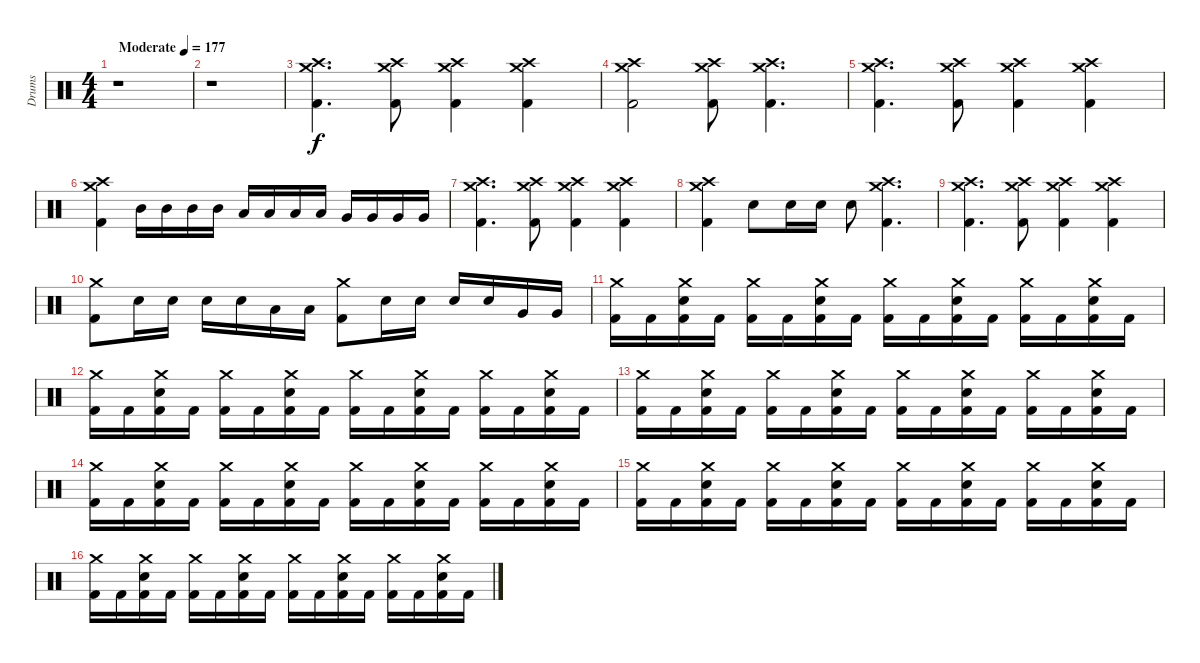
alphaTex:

\track ("Drums" "Drums") {instrument percussion}
\staff {score}
\articulation defaults
\ts (4 4)
\tempo (177 "Moderate")
\clef neutral
\ks c
r.1{dy f} |
r.1 |
("Crash medium (hit)" "Crash high (hit)" "Kick (hit) 2").4{d} ("Crash medium (hit)" "Crash high (hit)" "Kick (hit) 2").8 ("Crash medium (hit)" "Crash high (hit)" "Kick (hit) 2").4 ("Crash medium (hit)" "Crash high (hit)" "Kick (hit) 2").4 |
("Crash medium (hit)" "Crash high (hit)" "Kick (hit) 2").2 ("Crash medium (hit)" "Crash high (hit)" "Kick (hit) 2").8 ("Crash medium (hit)" "Crash high (hit)" "Kick (hit) 2").4{d} |
("Crash medium (hit)" "Crash high (hit)" "Kick (hit) 2").4{d} ("Crash medium (hit)" "Crash high (hit)" "Kick (hit) 2").8 ("Crash medium (hit)" "Crash high (hit)" "Kick (hit) 2").4 ("Crash medium (hit)" "Crash high (hit)" "Kick (hit) 2").4 |
("Crash medium (hit)" "Crash high (hit)" "Kick (hit) 2").4 "Mid Tom (hit)".16 "Mid Tom (hit)".16 "Mid Tom (hit)".16 "Mid Tom (hit)".16 "Low Tom (hit)".16 "Low Tom (hit)".16 "Low Tom (hit)".16 "Low Tom (hit)".16 "Very Low Tom (hit)".16 "Very Low Tom (hit)".16 "Very Low Tom (hit)".16 "Very Low Tom (hit)".16 |
("Crash medium (hit)" "Crash high (hit)" "Kick (hit) 2").4{d} ("Crash medium (hit)" "Crash high (hit)" "Kick (hit) 2").8 ("Crash medium (hit)" "Crash high (hit)" "Kick (hit) 2").4 ("Crash medium (hit)" "Crash high (hit)" "Kick (hit) 2").4 |
("Crash medium (hit)" "Crash high (hit)" "Kick (hit) 2").4 "Snare (hit) 2".8 "Snare (hit) 2".16 "Snare (hit) 2".16 "Snare (hit) 2".8 ("Crash medium (hit)" "Crash high (hit)" "Kick (hit) 2").4{d} |
("Crash medium (hit)" "Crash high (hit)" "Kick (hit) 2").4{d} ("Crash medium (hit)" "Crash high (hit)" "Kick (hit) 2").8 ("Crash medium (hit)" "Crash high (hit)" "Kick (hit) 2").4 ("Crash medium (hit)" "Crash high (hit)" "Kick (hit) 2").4 |
("Crash medium (hit)" "Kick (hit) 2").8 "Snare (hit) 2".16 "Snare (hit) 2".16 "Snare (hit) 2".16 "Snare (hit) 2".16 "Low Tom (hit)".16 "Low Tom (hit)".16 ("Crash medium (hit)" "Kick (hit) 2").8 "Snare (hit) 2".16 "Snare (hit) 2".16 "Snare (hit) 2".16 "Snare (hit) 2".16 "Very Low Tom (hit)".16 "Very Low Tom (hit)".16 |
("Crash medium (hit)" "Kick (hit) 2").16 "Kick (hit) 2".16 ("Crash medium (hit)" "Snare (hit) 2" "Kick (hit) 2").16 "Kick (hit) 2".16 ("Crash medium (hit)" "Kick (hit) 2").16 "Kick (hit) 2".16 ("Crash medium (hit)" "Snare (hit) 2" "Kick (hit) 2").16 "Kick (hit) 2".16 ("Crash medium (hit)" "Kick (hit) 2").16 "Kick (hit) 2".16 ("Crash medium (hit)" "Snare (hit) 2" "Kick (hit) 2").16 "Kick (hit) 2".16 ("Crash medium (hit)" "Kick (hit) 2").16 "Kick (hit) 2".16 ("Crash medium (hit)" "Snare (hit) 2" "Kick (hit) 2").16 "Kick (hit) 2".16 |
("Crash medium (hit)" "Kick (hit) 2").16 "Kick (hit) 2".16 ("Crash medium (hit)" "Snare (hit) 2" "Kick (hit) 2").16 "Kick (hit) 2".16 ("Crash medium (hit)" "Kick (hit) 2").16 "Kick (hit) 2".16 ("Crash medium (hit)" "Snare (hit) 2" "Kick (hit) 2").16 "Kick (hit) 2".16 ("Crash medium (hit)" "Kick (hit) 2").16 "Kick (hit) 2".16 ("Crash medium (hit)" "Snare (hit) 2" "Kick (hit) 2").16 "Kick (hit) 2".16 ("Crash medium (hit)" "Kick (hit) 2").16 "Kick (hit) 2".16 ("Crash medium (hit)" "Snare (hit) 2" "Kick (hit) 2").16 "Kick (hit) 2".16 |
("Crash medium (hit)" "Kick (hit) 2").16 "Kick (hit) 2".16 ("Crash medium (hit)" "Snare (hit) 2" "Kick (hit) 2").16 "Kick (hit) 2".16 ("Crash medium (hit)" "Kick (hit) 2").16 "Kick (hit) 2".16 ("Crash medium (hit)" "Snare (hit) 2" "Kick (hit) 2").16 "Kick (hit) 2".16 ("Crash medium (hit)" "Kick (hit) 2").16 "Kick (hit) 2".16 ("Crash medium (hit)" "Snare (hit) 2" "Kick (hit) 2").16 "Kick (hit) 2".16 ("Crash medium (hit)" "Kick (hit) 2").16 "Kick (hit) 2".16 ("Crash medium (hit)" "Snare (hit) 2" "Kick (hit) 2").16 "Kick (hit) 2".16 |
("Crash medium (hit)" "Kick (hit) 2").16 "Kick (hit) 2".16 ("Crash medium (hit)" "Snare (hit) 2" "Kick (hit) 2").16 "Kick (hit) 2".16 ("Crash medium (hit)" "Kick (hit) 2").16 "Kick (hit) 2".16 ("Crash medium (hit)" "Snare (hit) 2" "Kick (hit) 2").16 "Kick (hit) 2".16 ("Crash medium (hit)" "Kick (hit) 2").16 "Kick (hit) 2".16 ("Crash medium (hit)" "Snare (hit) 2" "Kick (hit) 2").16 "Kick (hit) 2".16 ("Crash medium (hit)" "Kick (hit) 2").16 "Kick (hit) 2".16 ("Crash medium (hit)" "Snare (hit) 2" "Kick (hit) 2").16 "Kick (hit) 2".16 |
("Crash medium (hit)" "Kick (hit) 2").16 "Kick (hit) 2".16 ("Crash medium (hit)" "Snare (hit) 2" "Kick (hit) 2").16 "Kick (hit) 2".16 ("Crash medium (hit)" "Kick (hit) 2").16 "Kick (hit) 2".16 ("Crash medium (hit)" "Snare (hit) 2" "Kick (hit) 2").16 "Kick (hit) 2".16 ("Crash medium (hit)" "Kick (hit) 2").16 "Kick (hit) 2".16 ("Crash medium (hit)" "Snare (hit) 2" "Kick (hit) 2").16 "Kick (hit) 2".16 ("Crash medium (hit)" "Kick (hit) 2").16 "Kick (hit) 2".16 ("Crash medium (hit)" "Snare (hit) 2" "Kick (hit) 2").16 "Kick (hit) 2".16 |
("Crash medium (hit)" "Kick (hit) 2").16 "Kick (hit) 2".16 ("Crash medium (hit)" "Snare (hit) 2" "Kick (hit) 2").16 "Kick (hit) 2".16 ("Crash medium (hit)" "Kick (hit) 2").16 "Kick (hit) 2".16 ("Crash medium (hit)" "Snare (hit) 2" "Kick (hit) 2").16 "Kick (hit) 2".16 ("Crash medium (hit)" "Kick (hit) 2").16 "Kick (hit) 2".16 ("Crash medium (hit)" "Snare (hit) 2" "Kick (hit) 2").16 "Kick (hit) 2".16 ("Crash medium (hit)" "Kick (hit) 2").16 "Kick (hit) 2".16 ("Crash medium (hit)" "Snare (hit) 2" "Kick (hit) 2").16 "Kick (hit) 2".16
